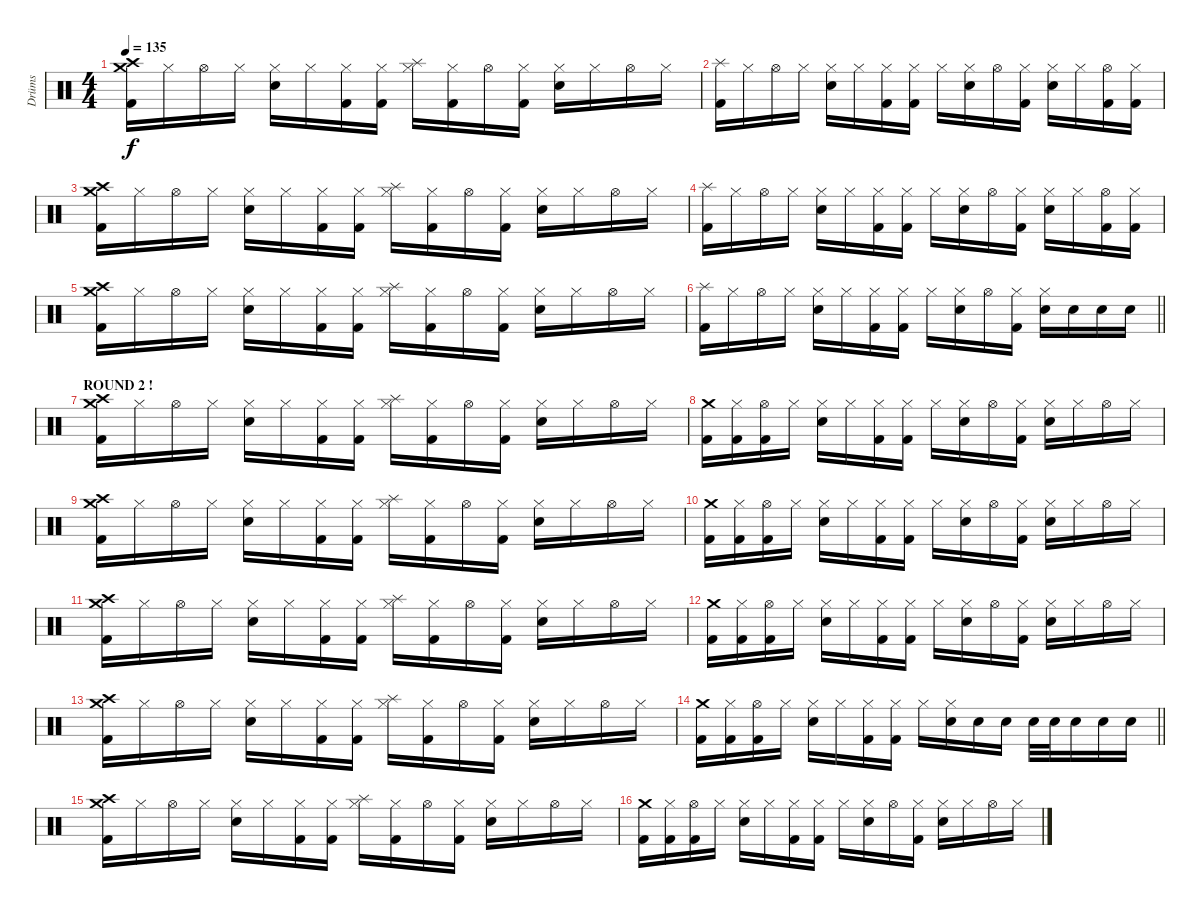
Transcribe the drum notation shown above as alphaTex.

\track ("Drüms" "Drüms") {instrument percussion}
\staff {score}
\articulation defaults
\ts (4 4)
\tempo 135
\clef neutral
\ks c
("Crash medium (hit)" "Crash high (hit)" "Kick (hit) 2").16{dy f} "Hi-Hat (closed)".16 "Hi-Hat (open)".16 "Hi-Hat (closed)".16 ("Hi-Hat (closed)" "Electric Snare (hit)").16 "Hi-Hat (closed)".16 ("Hi-Hat (closed)" "Kick (hit) 2").16 ("Hi-Hat (closed)" "Kick (hit) 2").16 ("Splash (hit)" "Hi-Hat (closed)").16 ("Hi-Hat (closed)" "Kick (hit) 2").16 "Hi-Hat (open)".16 ("Hi-Hat (closed)" "Kick (hit) 2").16 ("Hi-Hat (closed)" "Electric Snare (hit)").16 "Hi-Hat (closed)".16 "Hi-Hat (open)".16 "Hi-Hat (closed)".16 |
("Splash (hit)" "Kick (hit) 2").16 "Hi-Hat (closed)".16 "Hi-Hat (open)".16 "Hi-Hat (closed)".16 ("Hi-Hat (closed)" "Electric Snare (hit)").16 "Hi-Hat (closed)".16 ("Hi-Hat (closed)" "Kick (hit) 2").16 ("Hi-Hat (closed)" "Kick (hit) 2").16 "Hi-Hat (closed)".16 ("Hi-Hat (closed)" "Electric Snare (hit)").16 "Hi-Hat (open)".16 ("Hi-Hat (closed)" "Kick (hit) 2").16 ("Hi-Hat (closed)" "Electric Snare (hit)").16 "Hi-Hat (closed)".16 ("Hi-Hat (open)" "Kick (hit) 2").16 ("Hi-Hat (closed)" "Kick (hit) 2").16 |
("Crash medium (hit)" "Crash high (hit)" "Kick (hit) 2").16 "Hi-Hat (closed)".16 "Hi-Hat (open)".16 "Hi-Hat (closed)".16 ("Hi-Hat (closed)" "Electric Snare (hit)").16 "Hi-Hat (closed)".16 ("Hi-Hat (closed)" "Kick (hit) 2").16 ("Hi-Hat (closed)" "Kick (hit) 2").16 ("Splash (hit)" "Hi-Hat (closed)").16 ("Hi-Hat (closed)" "Kick (hit) 2").16 "Hi-Hat (open)".16 ("Hi-Hat (closed)" "Kick (hit) 2").16 ("Hi-Hat (closed)" "Electric Snare (hit)").16 "Hi-Hat (closed)".16 "Hi-Hat (open)".16 "Hi-Hat (closed)".16 |
("Splash (hit)" "Kick (hit) 2").16 "Hi-Hat (closed)".16 "Hi-Hat (open)".16 "Hi-Hat (closed)".16 ("Hi-Hat (closed)" "Electric Snare (hit)").16 "Hi-Hat (closed)".16 ("Hi-Hat (closed)" "Kick (hit) 2").16 ("Hi-Hat (closed)" "Kick (hit) 2").16 "Hi-Hat (closed)".16 ("Hi-Hat (closed)" "Electric Snare (hit)").16 "Hi-Hat (open)".16 ("Hi-Hat (closed)" "Kick (hit) 2").16 ("Hi-Hat (closed)" "Electric Snare (hit)").16 "Hi-Hat (closed)".16 ("Hi-Hat (open)" "Kick (hit) 2").16 ("Hi-Hat (closed)" "Kick (hit) 2").16 |
("Crash medium (hit)" "Crash high (hit)" "Kick (hit) 2").16 "Hi-Hat (closed)".16 "Hi-Hat (open)".16 "Hi-Hat (closed)".16 ("Hi-Hat (closed)" "Electric Snare (hit)").16 "Hi-Hat (closed)".16 ("Hi-Hat (closed)" "Kick (hit) 2").16 ("Hi-Hat (closed)" "Kick (hit) 2").16 ("Splash (hit)" "Hi-Hat (closed)").16 ("Hi-Hat (closed)" "Kick (hit) 2").16 "Hi-Hat (open)".16 ("Hi-Hat (closed)" "Kick (hit) 2").16 ("Hi-Hat (closed)" "Electric Snare (hit)").16 "Hi-Hat (closed)".16 "Hi-Hat (open)".16 "Hi-Hat (closed)".16 |
\barLineRight lightlight
("Splash (hit)" "Kick (hit) 2").16 "Hi-Hat (closed)".16 "Hi-Hat (open)".16 "Hi-Hat (closed)".16 ("Hi-Hat (closed)" "Electric Snare (hit)").16 "Hi-Hat (closed)".16 ("Hi-Hat (closed)" "Kick (hit) 2").16 ("Hi-Hat (closed)" "Kick (hit) 2").16 "Hi-Hat (closed)".16 ("Hi-Hat (closed)" "Electric Snare (hit)").16 "Hi-Hat (open)".16 ("Hi-Hat (closed)" "Kick (hit) 2").16 ("Hi-Hat (closed)" "Electric Snare (hit)").16 "Electric Snare (hit)".16 "Electric Snare (hit)".16 "Electric Snare (hit)".16 |
\section ("" "ROUND 2 !")
("Crash medium (hit)" "Crash high (hit)" "Kick (hit) 2").16 "Hi-Hat (closed)".16 "Hi-Hat (open)".16 "Hi-Hat (closed)".16 ("Hi-Hat (closed)" "Electric Snare (hit)").16 "Hi-Hat (closed)".16 ("Hi-Hat (closed)" "Kick (hit) 2").16 ("Hi-Hat (closed)" "Kick (hit) 2").16 ("Splash (hit)" "Hi-Hat (closed)").16 ("Hi-Hat (closed)" "Kick (hit) 2").16 "Hi-Hat (open)".16 ("Hi-Hat (closed)" "Kick (hit) 2").16 ("Hi-Hat (closed)" "Electric Snare (hit)").16 "Hi-Hat (closed)".16 "Hi-Hat (open)".16 "Hi-Hat (closed)".16 |
("Crash medium (hit)" "Kick (hit) 2").16 ("Hi-Hat (closed)" "Kick (hit) 2").16 ("Hi-Hat (open)" "Kick (hit) 2").16 "Hi-Hat (closed)".16 ("Hi-Hat (closed)" "Electric Snare (hit)").16 "Hi-Hat (closed)".16 ("Hi-Hat (closed)" "Kick (hit) 2").16 ("Hi-Hat (closed)" "Kick (hit) 2").16 "Hi-Hat (closed)".16 ("Hi-Hat (closed)" "Electric Snare (hit)").16 "Hi-Hat (open)".16 ("Hi-Hat (closed)" "Kick (hit) 2").16 ("Hi-Hat (closed)" "Electric Snare (hit)").16 "Hi-Hat (closed)".16 "Hi-Hat (open)".16 "Hi-Hat (closed)".16 |
("Crash medium (hit)" "Crash high (hit)" "Kick (hit) 2").16 "Hi-Hat (closed)".16 "Hi-Hat (open)".16 "Hi-Hat (closed)".16 ("Hi-Hat (closed)" "Electric Snare (hit)").16 "Hi-Hat (closed)".16 ("Hi-Hat (closed)" "Kick (hit) 2").16 ("Hi-Hat (closed)" "Kick (hit) 2").16 ("Splash (hit)" "Hi-Hat (closed)").16 ("Hi-Hat (closed)" "Kick (hit) 2").16 "Hi-Hat (open)".16 ("Hi-Hat (closed)" "Kick (hit) 2").16 ("Hi-Hat (closed)" "Electric Snare (hit)").16 "Hi-Hat (closed)".16 "Hi-Hat (open)".16 "Hi-Hat (closed)".16 |
("Crash medium (hit)" "Kick (hit) 2").16 ("Hi-Hat (closed)" "Kick (hit) 2").16 ("Hi-Hat (open)" "Kick (hit) 2").16 "Hi-Hat (closed)".16 ("Hi-Hat (closed)" "Electric Snare (hit)").16 "Hi-Hat (closed)".16 ("Hi-Hat (closed)" "Kick (hit) 2").16 ("Hi-Hat (closed)" "Kick (hit) 2").16 "Hi-Hat (closed)".16 ("Hi-Hat (closed)" "Electric Snare (hit)").16 "Hi-Hat (open)".16 ("Hi-Hat (closed)" "Kick (hit) 2").16 ("Hi-Hat (closed)" "Electric Snare (hit)").16 "Hi-Hat (closed)".16 "Hi-Hat (open)".16 "Hi-Hat (closed)".16 |
("Crash medium (hit)" "Crash high (hit)" "Kick (hit) 2").16 "Hi-Hat (closed)".16 "Hi-Hat (open)".16 "Hi-Hat (closed)".16 ("Hi-Hat (closed)" "Electric Snare (hit)").16 "Hi-Hat (closed)".16 ("Hi-Hat (closed)" "Kick (hit) 2").16 ("Hi-Hat (closed)" "Kick (hit) 2").16 ("Splash (hit)" "Hi-Hat (closed)").16 ("Hi-Hat (closed)" "Kick (hit) 2").16 "Hi-Hat (open)".16 ("Hi-Hat (closed)" "Kick (hit) 2").16 ("Hi-Hat (closed)" "Electric Snare (hit)").16 "Hi-Hat (closed)".16 "Hi-Hat (open)".16 "Hi-Hat (closed)".16 |
("Crash medium (hit)" "Kick (hit) 2").16 ("Hi-Hat (closed)" "Kick (hit) 2").16 ("Hi-Hat (open)" "Kick (hit) 2").16 "Hi-Hat (closed)".16 ("Hi-Hat (closed)" "Electric Snare (hit)").16 "Hi-Hat (closed)".16 ("Hi-Hat (closed)" "Kick (hit) 2").16 ("Hi-Hat (closed)" "Kick (hit) 2").16 "Hi-Hat (closed)".16 ("Hi-Hat (closed)" "Electric Snare (hit)").16 "Hi-Hat (open)".16 ("Hi-Hat (closed)" "Kick (hit) 2").16 ("Hi-Hat (closed)" "Electric Snare (hit)").16 "Hi-Hat (closed)".16 "Hi-Hat (open)".16 "Hi-Hat (closed)".16 |
("Crash medium (hit)" "Crash high (hit)" "Kick (hit) 2").16 "Hi-Hat (closed)".16 "Hi-Hat (open)".16 "Hi-Hat (closed)".16 ("Hi-Hat (closed)" "Electric Snare (hit)").16 "Hi-Hat (closed)".16 ("Hi-Hat (closed)" "Kick (hit) 2").16 ("Hi-Hat (closed)" "Kick (hit) 2").16 ("Splash (hit)" "Hi-Hat (closed)").16 ("Hi-Hat (closed)" "Kick (hit) 2").16 "Hi-Hat (open)".16 ("Hi-Hat (closed)" "Kick (hit) 2").16 ("Hi-Hat (closed)" "Electric Snare (hit)").16 "Hi-Hat (closed)".16 "Hi-Hat (open)".16 "Hi-Hat (closed)".16 |
\barLineRight lightlight
("Crash medium (hit)" "Kick (hit) 2").16 ("Hi-Hat (closed)" "Kick (hit) 2").16 ("Hi-Hat (open)" "Kick (hit) 2").16 "Hi-Hat (closed)".16 ("Hi-Hat (closed)" "Electric Snare (hit)").16 "Hi-Hat (closed)".16 ("Hi-Hat (closed)" "Kick (hit) 2").16 ("Hi-Hat (closed)" "Kick (hit) 2").16 "Hi-Hat (closed)".16 ("Hi-Hat (closed)" "Electric Snare (hit)").16 "Electric Snare (hit)".16 "Electric Snare (hit)".16 "Electric Snare (hit)".32 "Electric Snare (hit)".32 "Electric Snare (hit)".16 "Electric Snare (hit)".16 "Electric Snare (hit)".16 |
("Crash medium (hit)" "Crash high (hit)" "Kick (hit) 2").16 "Hi-Hat (closed)".16 "Hi-Hat (open)".16 "Hi-Hat (closed)".16 ("Hi-Hat (closed)" "Electric Snare (hit)").16 "Hi-Hat (closed)".16 ("Hi-Hat (closed)" "Kick (hit) 2").16 ("Hi-Hat (closed)" "Kick (hit) 2").16 ("Splash (hit)" "Hi-Hat (closed)").16 ("Hi-Hat (closed)" "Kick (hit) 2").16 "Hi-Hat (open)".16 ("Hi-Hat (closed)" "Kick (hit) 2").16 ("Hi-Hat (closed)" "Electric Snare (hit)").16 "Hi-Hat (closed)".16 "Hi-Hat (open)".16 "Hi-Hat (closed)".16 |
("Crash medium (hit)" "Kick (hit) 2").16 ("Hi-Hat (closed)" "Kick (hit) 2").16 ("Hi-Hat (open)" "Kick (hit) 2").16 "Hi-Hat (closed)".16 ("Hi-Hat (closed)" "Electric Snare (hit)").16 "Hi-Hat (closed)".16 ("Hi-Hat (closed)" "Kick (hit) 2").16 ("Hi-Hat (closed)" "Kick (hit) 2").16 "Hi-Hat (closed)".16 ("Hi-Hat (closed)" "Electric Snare (hit)").16 "Hi-Hat (open)".16 ("Hi-Hat (closed)" "Kick (hit) 2").16 ("Hi-Hat (closed)" "Electric Snare (hit)").16 "Hi-Hat (closed)".16 "Hi-Hat (open)".16 "Hi-Hat (closed)".16
